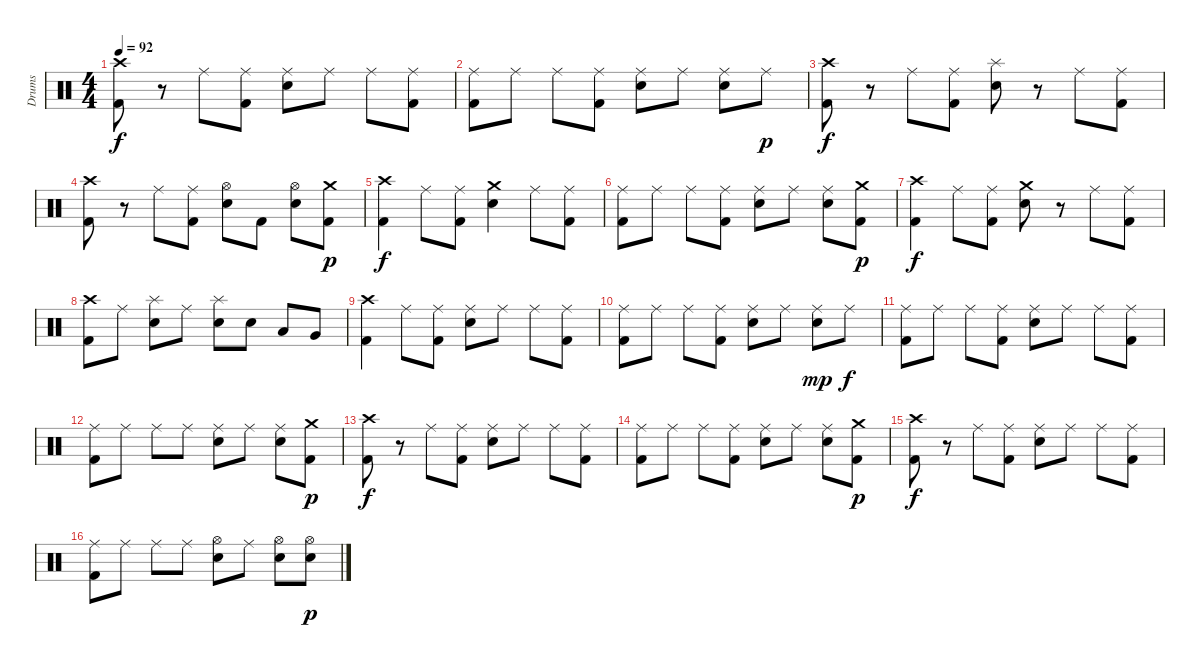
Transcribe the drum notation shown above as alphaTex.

\track ("Drums" "Drums") {instrument percussion}
\staff {score}
\articulation defaults
\ts (4 4)
\tempo 92
\clef neutral
\ks c
("Crash high (hit)" "Kick (hit) 2").8{dy f} r.8 "Ride (middle)".8 ("Ride (middle)" "Kick (hit) 2").8 ("Ride (middle)" "Snare (hit) 2").8 "Ride (middle)".8 "Ride (middle)".8 ("Ride (middle)" "Kick (hit) 2").8 |
("Ride (middle)" "Kick (hit) 2").8 "Ride (middle)".8 "Ride (middle)".8 ("Ride (middle)" "Kick (hit) 2").8 ("Ride (middle)" "Snare (hit) 2").8 "Ride (middle)".8 ("Ride (middle)" "Snare (hit) 2").8 "Ride (middle)".8{dy p} |
("Crash high (hit)" "Kick (hit) 2").8{dy f} r.8 "Ride (middle)".8 ("Ride (middle)" "Kick (hit) 2").8 ("Splash (hit)" "Snare (hit) 2").8 r.8 "Ride (middle)".8 ("Ride (middle)" "Kick (hit) 2").8 |
("Crash high (hit)" "Kick (hit) 2").8 r.8 "Ride (middle)".8 ("Ride (middle)" "Kick (hit) 2").8 ("Hi-Hat (open)" "Snare (hit) 2").8 "Kick (hit) 2".8 ("Hi-Hat (open)" "Snare (hit) 2").8 ("Crash medium (hit)" "Kick (hit) 2").8{dy p} |
("Crash high (hit)" "Kick (hit) 2").4{dy f} "Ride (middle)".8 ("Ride (middle)" "Kick (hit) 2").8 ("Crash medium (hit)" "Snare (hit) 2").4 "Ride (middle)".8 ("Ride (middle)" "Kick (hit) 2").8 |
("Ride (middle)" "Kick (hit) 2").8 "Ride (middle)".8 "Ride (middle)".8 ("Ride (middle)" "Kick (hit) 2").8 ("Ride (middle)" "Snare (hit) 2").8 "Ride (middle)".8 ("Ride (middle)" "Snare (hit) 2").8 ("Crash medium (hit)" "Kick (hit) 2").8{dy p} |
("Crash high (hit)" "Kick (hit) 2").4{dy f} "Ride (middle)".8 ("Ride (middle)" "Kick (hit) 2").8 ("Crash medium (hit)" "Snare (hit) 2").8 r.8 "Ride (middle)".8 ("Ride (middle)" "Kick (hit) 2").8 |
("Crash high (hit)" "Kick (hit) 2").8 "Ride (middle)".8 ("Splash (hit)" "Snare (hit) 2").8 "Ride (middle)".8 ("Splash (hit)" "Snare (hit) 2").8 "Snare (hit) 2".8 "Low Tom (hit)".8 "Very Low Tom (hit)".8 |
("Crash high (hit)" "Kick (hit) 2").4 "Ride (middle)".8 ("Ride (middle)" "Kick (hit) 2").8 ("Ride (middle)" "Snare (hit) 2").8 "Ride (middle)".8 "Ride (middle)".8 ("Ride (middle)" "Kick (hit) 2").8 |
("Ride (middle)" "Kick (hit) 2").8 "Ride (middle)".8 "Ride (middle)".8 ("Ride (middle)" "Kick (hit) 2").8 ("Ride (middle)" "Snare (hit) 2").8 "Ride (middle)".8 ("Ride (middle)" "Snare (hit) 2").8{dy mp} "Ride (middle)".8{dy f} |
("Ride (middle)" "Kick (hit) 2").8 "Ride (middle)".8 "Ride (middle)".8 ("Ride (middle)" "Kick (hit) 2").8 ("Ride (middle)" "Snare (hit) 2").8 "Ride (middle)".8 "Ride (middle)".8 ("Ride (middle)" "Kick (hit) 2").8 |
("Ride (middle)" "Kick (hit) 2").8 "Ride (middle)".8 "Ride (middle)".8 "Ride (middle)".8 ("Ride (middle)" "Snare (hit) 2").8 "Ride (middle)".8 ("Ride (middle)" "Snare (hit) 2").8 ("Crash medium (hit)" "Kick (hit) 2").8{dy p} |
("Crash high (hit)" "Kick (hit) 2").8{dy f} r.8 "Ride (middle)".8 ("Ride (middle)" "Kick (hit) 2").8 ("Ride (middle)" "Snare (hit) 2").8 "Ride (middle)".8 "Ride (middle)".8 ("Ride (middle)" "Kick (hit) 2").8 |
("Ride (middle)" "Kick (hit) 2").8 "Ride (middle)".8 "Ride (middle)".8 ("Ride (middle)" "Kick (hit) 2").8 ("Ride (middle)" "Snare (hit) 2").8 "Ride (middle)".8 ("Ride (middle)" "Snare (hit) 2").8 ("Crash medium (hit)" "Kick (hit) 2").8{dy p} |
("Crash high (hit)" "Kick (hit) 2").8{dy f} r.8 "Ride (middle)".8 ("Ride (middle)" "Kick (hit) 2").8 ("Ride (middle)" "Snare (hit) 2").8 "Ride (middle)".8 "Ride (middle)".8 ("Ride (middle)" "Kick (hit) 2").8 |
("Ride (middle)" "Kick (hit) 2").8 "Ride (middle)".8 "Ride (middle)".8 "Ride (middle)".8 ("Hi-Hat (open)" "Snare (hit) 2").8 "Ride (middle)".8 ("Hi-Hat (open)" "Snare (hit) 2").8 ("Hi-Hat (open)" "Snare (hit) 2").8{dy p}
